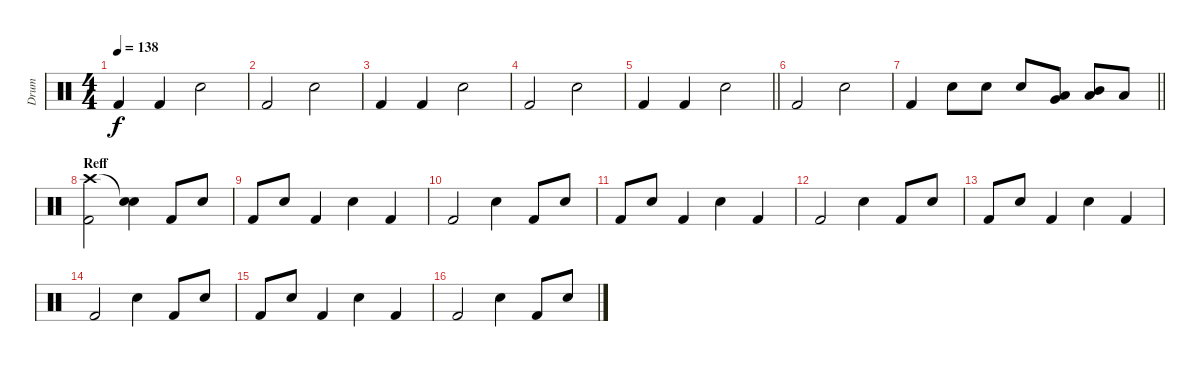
\track ("Drum" "Drum") {instrument percussion}
\staff {score}
\articulation defaults
\ts (4 4)
\tempo 138
\clef neutral
\ks c "Kick (hit) 2".4{dy f} "Kick (hit) 2".4 "Electric Snare (hit)".2
|
"Kick (hit) 2".2 "Electric Snare (hit)".2 |
"Kick (hit) 2".4 "Kick (hit) 2".4 "Electric Snare (hit)".2 |
"Kick (hit) 2".2 "Electric Snare (hit)".2 |
\barLineRight lightlight "Kick (hit) 2".4 "Kick (hit) 2".4 "Electric Snare (hit)".2
|
"Kick (hit) 2".2 "Electric Snare (hit)".2 |
\barLineRight lightlight "Kick (hit) 2".4 "Electric Snare (hit)".8 "Electric Snare (hit)".8 "Electric Snare (hit)".8
("Low Tom (hit)" "Very Low Tom (hit)").8 ("Mid Tom (hit)" "Low Floor Tom (hit)").8 "Low Floor Tom (hit)".8 |
\section ("" "Reff")
("Crash high (hit)" "Kick (hit) 2").2 ("Snare (hit)"{t} "Electric Snare (hit)").4 "Kick (hit) 2".8 "Electric Snare (hit)".8 |
"Kick (hit) 2".8 "Electric Snare (hit)".8 "Kick (hit) 2".4 "Electric Snare (hit)".4 "Kick (hit) 2".4 |
"Kick (hit) 2".2 "Electric Snare (hit)".4 "Kick (hit) 2".8 "Electric Snare (hit)".8 |
"Kick (hit) 2".8 "Electric Snare (hit)".8 "Kick (hit) 2".4 "Electric Snare (hit)".4 "Kick (hit) 2".4 |
"Kick (hit) 2".2 "Electric Snare (hit)".4 "Kick (hit) 2".8 "Electric Snare (hit)".8 |
"Kick (hit) 2".8 "Electric Snare (hit)".8 "Kick (hit) 2".4 "Electric Snare (hit)".4 "Kick (hit) 2".4 |
"Kick (hit) 2".2 "Electric Snare (hit)".4 "Kick (hit) 2".8 "Electric Snare (hit)".8 |
"Kick (hit) 2".8 "Electric Snare (hit)".8 "Kick (hit) 2".4 "Electric Snare (hit)".4 "Kick (hit) 2".4 |
"Kick (hit) 2".2 "Electric Snare (hit)".4 "Kick (hit) 2".8 "Electric Snare (hit)".8
